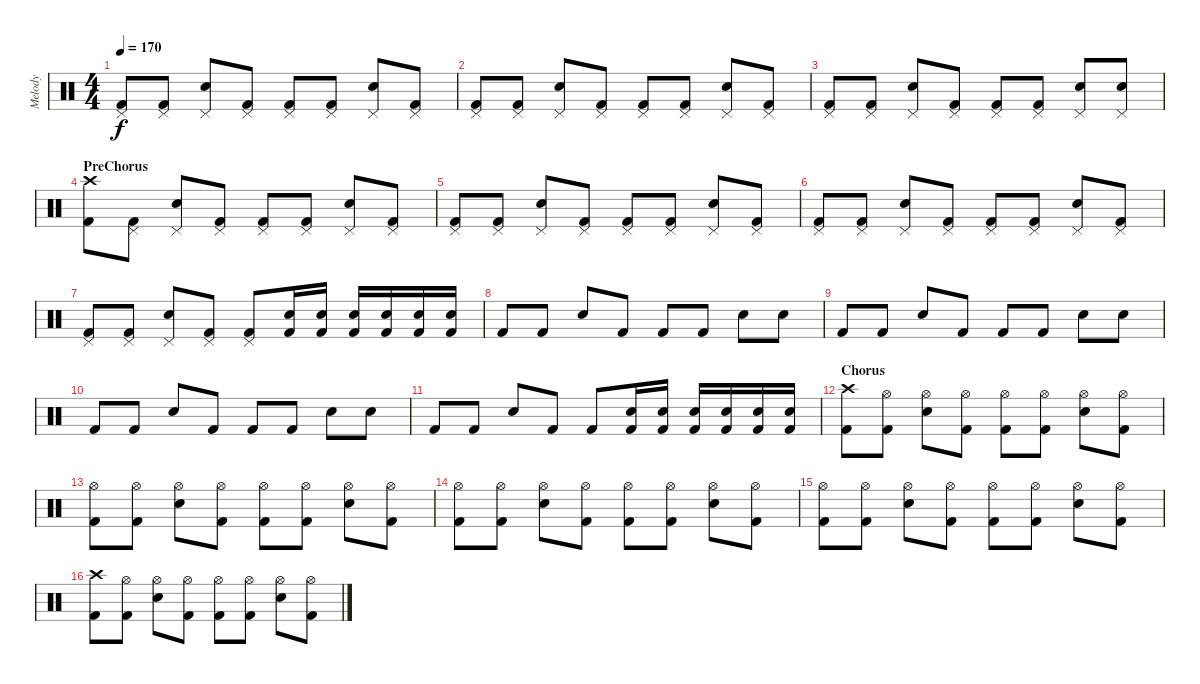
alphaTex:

\track ("Melody" "Melody") {instrument percussion}
\staff {score}
\articulation defaults
\ts (4 4)
\tempo 170
\clef neutral
\ks c
("Pedal Hi-Hat (hit)" "Kick (hit) 2").8{dy f} ("Pedal Hi-Hat (hit)" "Kick (hit) 2").8 ("Pedal Hi-Hat (hit)" "Snare (hit) 2").8 ("Pedal Hi-Hat (hit)" "Kick (hit) 2").8 ("Pedal Hi-Hat (hit)" "Kick (hit) 2").8 ("Pedal Hi-Hat (hit)" "Kick (hit) 2").8 ("Pedal Hi-Hat (hit)" "Snare (hit) 2").8 ("Pedal Hi-Hat (hit)" "Kick (hit) 2").8 |
("Pedal Hi-Hat (hit)" "Kick (hit) 2").8 ("Pedal Hi-Hat (hit)" "Kick (hit) 2").8 ("Pedal Hi-Hat (hit)" "Snare (hit) 2").8 ("Pedal Hi-Hat (hit)" "Kick (hit) 2").8 ("Pedal Hi-Hat (hit)" "Kick (hit) 2").8 ("Pedal Hi-Hat (hit)" "Kick (hit) 2").8 ("Pedal Hi-Hat (hit)" "Snare (hit) 2").8 ("Pedal Hi-Hat (hit)" "Kick (hit) 2").8 |
("Pedal Hi-Hat (hit)" "Kick (hit) 2").8 ("Pedal Hi-Hat (hit)" "Kick (hit) 2").8 ("Pedal Hi-Hat (hit)" "Snare (hit) 2").8 ("Pedal Hi-Hat (hit)" "Kick (hit) 2").8 ("Pedal Hi-Hat (hit)" "Kick (hit) 2").8 ("Pedal Hi-Hat (hit)" "Kick (hit) 2").8 ("Pedal Hi-Hat (hit)" "Snare (hit) 2").8 ("Pedal Hi-Hat (hit)" "Snare (hit) 2").8 |
\section ("" "PreChorus")
("Crash high (hit)" "Kick (hit) 2").8 ("Pedal Hi-Hat (hit)" "Kick (hit) 2").8 ("Pedal Hi-Hat (hit)" "Snare (hit) 2").8 ("Pedal Hi-Hat (hit)" "Kick (hit) 2").8 ("Pedal Hi-Hat (hit)" "Kick (hit) 2").8 ("Pedal Hi-Hat (hit)" "Kick (hit) 2").8 ("Pedal Hi-Hat (hit)" "Snare (hit) 2").8 ("Pedal Hi-Hat (hit)" "Kick (hit) 2").8 |
("Pedal Hi-Hat (hit)" "Kick (hit) 2").8 ("Pedal Hi-Hat (hit)" "Kick (hit) 2").8 ("Pedal Hi-Hat (hit)" "Snare (hit) 2").8 ("Pedal Hi-Hat (hit)" "Kick (hit) 2").8 ("Pedal Hi-Hat (hit)" "Kick (hit) 2").8 ("Pedal Hi-Hat (hit)" "Kick (hit) 2").8 ("Pedal Hi-Hat (hit)" "Snare (hit) 2").8 ("Pedal Hi-Hat (hit)" "Kick (hit) 2").8 |
("Pedal Hi-Hat (hit)" "Kick (hit) 2").8 ("Pedal Hi-Hat (hit)" "Kick (hit) 2").8 ("Pedal Hi-Hat (hit)" "Snare (hit) 2").8 ("Pedal Hi-Hat (hit)" "Kick (hit) 2").8 ("Pedal Hi-Hat (hit)" "Kick (hit) 2").8 ("Pedal Hi-Hat (hit)" "Kick (hit) 2").8 ("Pedal Hi-Hat (hit)" "Snare (hit) 2").8 ("Pedal Hi-Hat (hit)" "Kick (hit) 2").8 |
("Pedal Hi-Hat (hit)" "Kick (hit) 2").8 ("Pedal Hi-Hat (hit)" "Kick (hit) 2").8 ("Pedal Hi-Hat (hit)" "Snare (hit) 2").8 ("Pedal Hi-Hat (hit)" "Kick (hit) 2").8 ("Pedal Hi-Hat (hit)" "Kick (hit) 2").8 ("Snare (hit) 2" "Kick (hit) 2").16 ("Snare (hit) 2" "Kick (hit) 2").16 ("Snare (hit) 2" "Kick (hit) 2").16 ("Snare (hit) 2" "Kick (hit) 2").16 ("Snare (hit) 2" "Kick (hit) 2").16 ("Snare (hit) 2" "Kick (hit) 2").16 |
"Kick (hit) 2".8 "Kick (hit) 2".8 "Snare (hit) 2".8 "Kick (hit) 2".8 "Kick (hit) 2".8 "Kick (hit) 2".8 "Snare (hit) 2".8 "Snare (hit) 2".8 |
"Kick (hit) 2".8 "Kick (hit) 2".8 "Snare (hit) 2".8 "Kick (hit) 2".8 "Kick (hit) 2".8 "Kick (hit) 2".8 "Snare (hit) 2".8 "Snare (hit) 2".8 |
"Kick (hit) 2".8 "Kick (hit) 2".8 "Snare (hit) 2".8 "Kick (hit) 2".8 "Kick (hit) 2".8 "Kick (hit) 2".8 "Snare (hit) 2".8 "Snare (hit) 2".8 |
"Kick (hit) 2".8 "Kick (hit) 2".8 "Snare (hit) 2".8 "Kick (hit) 2".8 "Kick (hit) 2".8 ("Snare (hit) 2" "Kick (hit) 2").16 ("Snare (hit) 2" "Kick (hit) 2").16 ("Snare (hit) 2" "Kick (hit) 2").16 ("Snare (hit) 2" "Kick (hit) 2").16 ("Snare (hit) 2" "Kick (hit) 2").16 ("Snare (hit) 2" "Kick (hit) 2").16 |
\section ("" "Chorus")
("Crash high (hit)" "Kick (hit) 2").8 ("Hi-Hat (open)" "Kick (hit) 2").8 ("Hi-Hat (open)" "Snare (hit) 2").8 ("Hi-Hat (open)" "Kick (hit) 2").8 ("Hi-Hat (open)" "Kick (hit) 2").8 ("Hi-Hat (open)" "Kick (hit) 2").8 ("Hi-Hat (open)" "Snare (hit) 2").8 ("Hi-Hat (open)" "Kick (hit) 2").8 |
("Hi-Hat (open)" "Kick (hit) 2").8 ("Hi-Hat (open)" "Kick (hit) 2").8 ("Hi-Hat (open)" "Snare (hit) 2").8 ("Hi-Hat (open)" "Kick (hit) 2").8 ("Hi-Hat (open)" "Kick (hit) 2").8 ("Hi-Hat (open)" "Kick (hit) 2").8 ("Hi-Hat (open)" "Snare (hit) 2").8 ("Hi-Hat (open)" "Kick (hit) 2").8 |
("Hi-Hat (open)" "Kick (hit) 2").8 ("Hi-Hat (open)" "Kick (hit) 2").8 ("Hi-Hat (open)" "Snare (hit) 2").8 ("Hi-Hat (open)" "Kick (hit) 2").8 ("Hi-Hat (open)" "Kick (hit) 2").8 ("Hi-Hat (open)" "Kick (hit) 2").8 ("Hi-Hat (open)" "Snare (hit) 2").8 ("Hi-Hat (open)" "Kick (hit) 2").8 |
("Hi-Hat (open)" "Kick (hit) 2").8 ("Hi-Hat (open)" "Kick (hit) 2").8 ("Hi-Hat (open)" "Snare (hit) 2").8 ("Hi-Hat (open)" "Kick (hit) 2").8 ("Hi-Hat (open)" "Kick (hit) 2").8 ("Hi-Hat (open)" "Kick (hit) 2").8 ("Hi-Hat (open)" "Snare (hit) 2").8 ("Hi-Hat (open)" "Kick (hit) 2").8 |
("Crash high (hit)" "Kick (hit) 2").8 ("Hi-Hat (open)" "Kick (hit) 2").8 ("Hi-Hat (open)" "Snare (hit) 2").8 ("Hi-Hat (open)" "Kick (hit) 2").8 ("Hi-Hat (open)" "Kick (hit) 2").8 ("Hi-Hat (open)" "Kick (hit) 2").8 ("Hi-Hat (open)" "Snare (hit) 2").8 ("Hi-Hat (open)" "Kick (hit) 2").8
